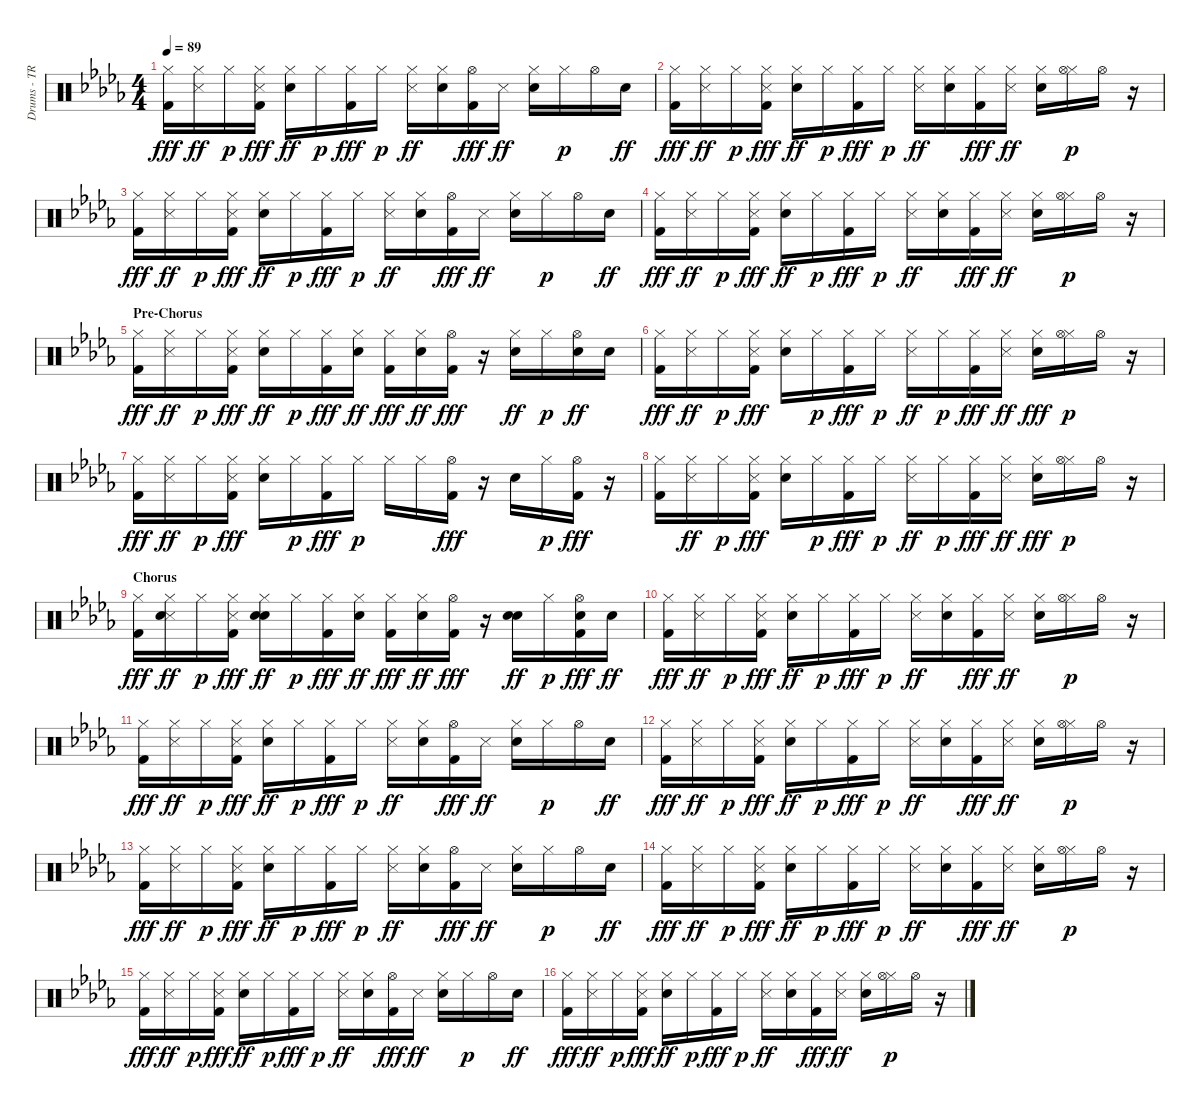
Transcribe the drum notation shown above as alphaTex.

\track ("Drums - TR808" "Drums - TR") {instrument percussion}
\staff {score}
\articulation defaults
\ts (4 4)
\tempo 89
\clef neutral
\ks bbminor
("Kick (hit) 2" "Hi-Hat (closed)").16{dy fff} ("Snare (side stick) 3" "Hi-Hat (closed)").16{dy ff} "Hi-Hat (closed)".16{dy p} ("Kick (hit) 2" "Snare (side stick) 3" "Hi-Hat (closed)").16{dy fff} ("Snare (hit) 2" "Hi-Hat (closed)").16{dy ff} "Hi-Hat (closed)".16{dy p} ("Kick (hit) 2" "Hi-Hat (closed)").16{dy fff} "Hi-Hat (closed)".16{dy p} ("Snare (side stick) 3" "Hi-Hat (closed)").16{dy ff} ("Snare (hit) 2" "Hi-Hat (closed)").16 ("Kick (hit) 2" "Hi-Hat (open)").16{dy fff} "Snare (side stick) 3".16{dy ff} ("Snare (hit) 2" "Hi-Hat (closed)").16 "Hi-Hat (closed)".16{dy p} "Hi-Hat (open)".16 "Snare (hit) 2".16{dy ff} |
("Kick (hit) 2" "Hi-Hat (closed)").16{dy fff} ("Snare (side stick) 3" "Hi-Hat (closed)").16{dy ff} "Hi-Hat (closed)".16{dy p} ("Kick (hit) 2" "Snare (side stick) 3" "Hi-Hat (closed)").16{dy fff} ("Snare (hit) 2" "Hi-Hat (closed)").16{dy ff} "Hi-Hat (closed)".16{dy p} ("Kick (hit) 2" "Hi-Hat (closed)").16{dy fff} "Hi-Hat (closed)".16{dy p} ("Snare (side stick) 3" "Hi-Hat (closed)").16{dy ff} ("Snare (hit) 2" "Hi-Hat (closed)").16 ("Kick (hit) 2" "Hi-Hat (closed)").16{dy fff} ("Snare (side stick) 3" "Hi-Hat (closed)").16{dy ff} ("Snare (hit) 2" "Hi-Hat (closed)").16 ("Hi-Hat (closed)" "Hi-Hat (open)").16{dy p} "Hi-Hat (open)".16 r.16 |
("Kick (hit) 2" "Hi-Hat (closed)").16{dy fff} ("Snare (side stick) 3" "Hi-Hat (closed)").16{dy ff} "Hi-Hat (closed)".16{dy p} ("Kick (hit) 2" "Snare (side stick) 3" "Hi-Hat (closed)").16{dy fff} ("Snare (hit) 2" "Hi-Hat (closed)").16{dy ff} "Hi-Hat (closed)".16{dy p} ("Kick (hit) 2" "Hi-Hat (closed)").16{dy fff} "Hi-Hat (closed)".16{dy p} ("Snare (side stick) 3" "Hi-Hat (closed)").16{dy ff} ("Snare (hit) 2" "Hi-Hat (closed)").16 ("Kick (hit) 2" "Hi-Hat (open)").16{dy fff} "Snare (side stick) 3".16{dy ff} ("Snare (hit) 2" "Hi-Hat (closed)").16 "Hi-Hat (closed)".16{dy p} "Hi-Hat (open)".16 "Snare (hit) 2".16{dy ff} |
("Kick (hit) 2" "Hi-Hat (closed)").16{dy fff} ("Snare (side stick) 3" "Hi-Hat (closed)").16{dy ff} "Hi-Hat (closed)".16{dy p} ("Kick (hit) 2" "Snare (side stick) 3" "Hi-Hat (closed)").16{dy fff} ("Snare (hit) 2" "Hi-Hat (closed)").16{dy ff} "Hi-Hat (closed)".16{dy p} ("Kick (hit) 2" "Hi-Hat (closed)").16{dy fff} "Hi-Hat (closed)".16{dy p} ("Snare (side stick) 3" "Hi-Hat (closed)").16{dy ff} ("Snare (hit) 2" "Hi-Hat (closed)").16 ("Kick (hit) 2" "Hi-Hat (closed)").16{dy fff} ("Snare (side stick) 3" "Hi-Hat (closed)").16{dy ff} ("Snare (hit) 2" "Hi-Hat (closed)").16 ("Hi-Hat (closed)" "Hi-Hat (open)").16{dy p} "Hi-Hat (open)".16 r.16 |
\section ("" "Pre-Chorus")
("Kick (hit) 2" "Hi-Hat (closed)").16{dy fff} ("Snare (side stick) 3" "Hi-Hat (closed)").16{dy ff} "Hi-Hat (closed)".16{dy p} ("Kick (hit) 2" "Snare (side stick) 3" "Hi-Hat (closed)").16{dy fff} ("Snare (hit) 2" "Hi-Hat (closed)").16{dy ff} "Hi-Hat (closed)".16{dy p} ("Kick (hit) 2" "Hi-Hat (closed)").16{dy fff} ("Snare (hit) 2" "Hi-Hat (closed)").16{dy ff} ("Kick (hit) 2" "Hi-Hat (closed)").16{dy fff} ("Snare (hit) 2" "Hi-Hat (closed)").16{dy ff} ("Kick (hit) 2" "Hi-Hat (open)").16{dy fff} r.16 ("Snare (hit) 2" "Hi-Hat (closed)").16{dy ff} "Hi-Hat (closed)".16{dy p} ("Snare (hit) 2" "Hi-Hat (open)").16{dy ff} "Snare (hit) 2".16 |
("Kick (hit) 2" "Hi-Hat (closed)").16{dy fff} ("Snare (side stick) 3" "Hi-Hat (closed)").16{dy ff} "Hi-Hat (closed)".16{dy p} ("Kick (hit) 2" "Snare (side stick) 3" "Hi-Hat (closed)").16{dy fff} ("Hand Clap (hit)" "Hi-Hat (closed)").16 "Hi-Hat (closed)".16{dy p} ("Kick (hit) 2" "Hi-Hat (closed)").16{dy fff} "Hi-Hat (closed)".16{dy p} ("Snare (side stick) 3" "Hi-Hat (closed)").16{dy ff} "Hi-Hat (closed)".16{dy p} ("Kick (hit) 2" "Hi-Hat (closed)").16{dy fff} ("Snare (side stick) 3" "Hi-Hat (closed)").16{dy ff} ("Hand Clap (hit)" "Hi-Hat (closed)").16{dy fff} ("Hi-Hat (closed)" "Hi-Hat (open)").16{dy p} "Hi-Hat (open)".16 r.16 |
("Kick (hit) 2" "Hi-Hat (closed)").16{dy fff} ("Snare (side stick) 3" "Hi-Hat (closed)").16{dy ff} "Hi-Hat (closed)".16{dy p} ("Kick (hit) 2" "Snare (side stick) 3" "Hi-Hat (closed)").16{dy fff} ("Hand Clap (hit)" "Hi-Hat (closed)").16 "Hi-Hat (closed)".16{dy p} ("Kick (hit) 2" "Hi-Hat (closed)").16{dy fff} "Hi-Hat (closed)".16{dy p} "Hi-Hat (closed)".16 "Hi-Hat (closed)".16 ("Kick (hit) 2" "Hi-Hat (open)").16{dy fff} r.16 "Hand Clap (hit)".16 "Hi-Hat (closed)".16{dy p} ("Kick (hit) 2" "Hi-Hat (open)").16{dy fff} r.16 |
("Kick (hit) 2" "Hi-Hat (closed)").16 ("Snare (side stick) 3" "Hi-Hat (closed)").16{dy ff} "Hi-Hat (closed)".16{dy p} ("Kick (hit) 2" "Snare (side stick) 3" "Hi-Hat (closed)").16{dy fff} ("Hand Clap (hit)" "Hi-Hat (closed)").16 "Hi-Hat (closed)".16{dy p} ("Kick (hit) 2" "Hi-Hat (closed)").16{dy fff} "Hi-Hat (closed)".16{dy p} ("Snare (side stick) 3" "Hi-Hat (closed)").16{dy ff} "Hi-Hat (closed)".16{dy p} ("Kick (hit) 2" "Hi-Hat (closed)").16{dy fff} ("Snare (side stick) 3" "Hi-Hat (closed)").16{dy ff} ("Hand Clap (hit)" "Hi-Hat (closed)").16{dy fff} ("Hi-Hat (closed)" "Hi-Hat (open)").16{dy p} "Hi-Hat (open)".16 r.16 |
\section ("" "Chorus")
("Kick (hit) 2" "Hi-Hat (closed)").16{dy fff} ("Snare (side stick) 3" "Snare (hit) 2" "Hi-Hat (closed)").16{dy ff} "Hi-Hat (closed)".16{dy p} ("Kick (hit) 2" "Snare (side stick) 3" "Hi-Hat (closed)").16{dy fff} ("Snare (hit) 2" "Hand Clap (hit)" "Hi-Hat (closed)").16{dy ff} "Hi-Hat (closed)".16{dy p} ("Kick (hit) 2" "Hi-Hat (closed)").16{dy fff} ("Snare (hit) 2" "Hi-Hat (closed)").16{dy ff} ("Kick (hit) 2" "Hi-Hat (closed)").16{dy fff} ("Snare (hit) 2" "Hi-Hat (closed)").16{dy ff} ("Kick (hit) 2" "Hi-Hat (open)").16{dy fff} r.16 ("Snare (hit) 2" "Hand Clap (hit)").16{dy ff} "Hi-Hat (closed)".16{dy p} ("Kick (hit) 2" "Snare (hit) 2" "Hi-Hat (open)").16{dy fff} "Snare (hit) 2".16{dy ff} |
("Kick (hit) 2" "Hi-Hat (closed)").16{dy fff} ("Snare (side stick) 3" "Hi-Hat (closed)").16{dy ff} "Hi-Hat (closed)".16{dy p} ("Kick (hit) 2" "Snare (side stick) 3" "Hi-Hat (closed)").16{dy fff} ("Snare (hit) 2" "Hi-Hat (closed)").16{dy ff} "Hi-Hat (closed)".16{dy p} ("Kick (hit) 2" "Hi-Hat (closed)").16{dy fff} "Hi-Hat (closed)".16{dy p} ("Snare (side stick) 3" "Hi-Hat (closed)").16{dy ff} ("Snare (hit) 2" "Hi-Hat (closed)").16 ("Kick (hit) 2" "Hi-Hat (closed)").16{dy fff} ("Snare (side stick) 3" "Hi-Hat (closed)").16{dy ff} ("Snare (hit) 2" "Hi-Hat (closed)").16 ("Hi-Hat (closed)" "Hi-Hat (open)").16{dy p} "Hi-Hat (open)".16 r.16 |
("Kick (hit) 2" "Hi-Hat (closed)").16{dy fff} ("Snare (side stick) 3" "Hi-Hat (closed)").16{dy ff} "Hi-Hat (closed)".16{dy p} ("Kick (hit) 2" "Snare (side stick) 3" "Hi-Hat (closed)").16{dy fff} ("Snare (hit) 2" "Hi-Hat (closed)").16{dy ff} "Hi-Hat (closed)".16{dy p} ("Kick (hit) 2" "Hi-Hat (closed)").16{dy fff} "Hi-Hat (closed)".16{dy p} ("Snare (side stick) 3" "Hi-Hat (closed)").16{dy ff} ("Snare (hit) 2" "Hi-Hat (closed)").16 ("Kick (hit) 2" "Hi-Hat (open)").16{dy fff} "Snare (side stick) 3".16{dy ff} ("Snare (hit) 2" "Hi-Hat (closed)").16 "Hi-Hat (closed)".16{dy p} "Hi-Hat (open)".16 "Snare (hit) 2".16{dy ff} |
("Kick (hit) 2" "Hi-Hat (closed)").16{dy fff} ("Snare (side stick) 3" "Hi-Hat (closed)").16{dy ff} "Hi-Hat (closed)".16{dy p} ("Kick (hit) 2" "Snare (side stick) 3" "Hi-Hat (closed)").16{dy fff} ("Snare (hit) 2" "Hi-Hat (closed)").16{dy ff} "Hi-Hat (closed)".16{dy p} ("Kick (hit) 2" "Hi-Hat (closed)").16{dy fff} "Hi-Hat (closed)".16{dy p} ("Snare (side stick) 3" "Hi-Hat (closed)").16{dy ff} ("Snare (hit) 2" "Hi-Hat (closed)").16 ("Kick (hit) 2" "Hi-Hat (closed)").16{dy fff} ("Snare (side stick) 3" "Hi-Hat (closed)").16{dy ff} ("Snare (hit) 2" "Hi-Hat (closed)").16 ("Hi-Hat (closed)" "Hi-Hat (open)").16{dy p} "Hi-Hat (open)".16 r.16 |
("Kick (hit) 2" "Hi-Hat (closed)").16{dy fff} ("Snare (side stick) 3" "Hi-Hat (closed)").16{dy ff} "Hi-Hat (closed)".16{dy p} ("Kick (hit) 2" "Snare (side stick) 3" "Hi-Hat (closed)").16{dy fff} ("Snare (hit) 2" "Hi-Hat (closed)").16{dy ff} "Hi-Hat (closed)".16{dy p} ("Kick (hit) 2" "Hi-Hat (closed)").16{dy fff} "Hi-Hat (closed)".16{dy p} ("Snare (side stick) 3" "Hi-Hat (closed)").16{dy ff} ("Snare (hit) 2" "Hi-Hat (closed)").16 ("Kick (hit) 2" "Hi-Hat (open)").16{dy fff} "Snare (side stick) 3".16{dy ff} ("Snare (hit) 2" "Hi-Hat (closed)").16 "Hi-Hat (closed)".16{dy p} "Hi-Hat (open)".16 "Snare (hit) 2".16{dy ff} |
("Kick (hit) 2" "Hi-Hat (closed)").16{dy fff} ("Snare (side stick) 3" "Hi-Hat (closed)").16{dy ff} "Hi-Hat (closed)".16{dy p} ("Kick (hit) 2" "Snare (side stick) 3" "Hi-Hat (closed)").16{dy fff} ("Snare (hit) 2" "Hi-Hat (closed)").16{dy ff} "Hi-Hat (closed)".16{dy p} ("Kick (hit) 2" "Hi-Hat (closed)").16{dy fff} "Hi-Hat (closed)".16{dy p} ("Snare (side stick) 3" "Hi-Hat (closed)").16{dy ff} ("Snare (hit) 2" "Hi-Hat (closed)").16 ("Kick (hit) 2" "Hi-Hat (closed)").16{dy fff} ("Snare (side stick) 3" "Hi-Hat (closed)").16{dy ff} ("Snare (hit) 2" "Hi-Hat (closed)").16 ("Hi-Hat (closed)" "Hi-Hat (open)").16{dy p} "Hi-Hat (open)".16 r.16 |
("Kick (hit) 2" "Hi-Hat (closed)").16{dy fff} ("Snare (side stick) 3" "Hi-Hat (closed)").16{dy ff} "Hi-Hat (closed)".16{dy p} ("Kick (hit) 2" "Snare (side stick) 3" "Hi-Hat (closed)").16{dy fff} ("Snare (hit) 2" "Hi-Hat (closed)").16{dy ff} "Hi-Hat (closed)".16{dy p} ("Kick (hit) 2" "Hi-Hat (closed)").16{dy fff} "Hi-Hat (closed)".16{dy p} ("Snare (side stick) 3" "Hi-Hat (closed)").16{dy ff} ("Snare (hit) 2" "Hi-Hat (closed)").16 ("Kick (hit) 2" "Hi-Hat (open)").16{dy fff} "Snare (side stick) 3".16{dy ff} ("Snare (hit) 2" "Hi-Hat (closed)").16 "Hi-Hat (closed)".16{dy p} "Hi-Hat (open)".16 "Snare (hit) 2".16{dy ff} |
("Kick (hit) 2" "Hi-Hat (closed)").16{dy fff} ("Snare (side stick) 3" "Hi-Hat (closed)").16{dy ff} "Hi-Hat (closed)".16{dy p} ("Kick (hit) 2" "Snare (side stick) 3" "Hi-Hat (closed)").16{dy fff} ("Snare (hit) 2" "Hi-Hat (closed)").16{dy ff} "Hi-Hat (closed)".16{dy p} ("Kick (hit) 2" "Hi-Hat (closed)").16{dy fff} "Hi-Hat (closed)".16{dy p} ("Snare (side stick) 3" "Hi-Hat (closed)").16{dy ff} ("Snare (hit) 2" "Hi-Hat (closed)").16 ("Kick (hit) 2" "Hi-Hat (closed)").16{dy fff} ("Snare (side stick) 3" "Hi-Hat (closed)").16{dy ff} ("Snare (hit) 2" "Hi-Hat (closed)").16 ("Hi-Hat (closed)" "Hi-Hat (open)").16{dy p} "Hi-Hat (open)".16 r.16
